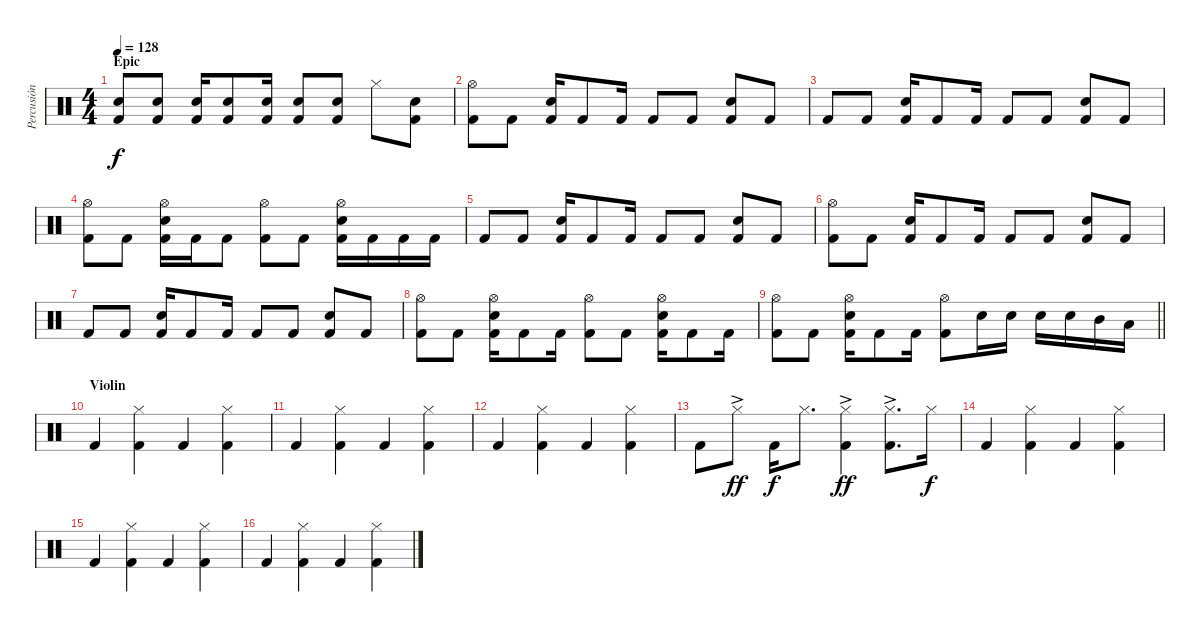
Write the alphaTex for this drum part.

\track ("Percusión" "Percusión") {instrument percussion}
\staff {score}
\articulation defaults
\ts (4 4)
\section ("" "Epic")
\tempo 128
\clef neutral
\ks c
("Snare (hit) 2" "Kick (hit) 2").8{dy f} ("Snare (hit) 2" "Kick (hit) 2").8 ("Snare (hit) 2" "Kick (hit) 2").16 ("Snare (hit) 2" "Kick (hit) 2").8 ("Snare (hit) 2" "Kick (hit) 2").16 ("Snare (hit) 2" "Kick (hit) 2").8 ("Snare (hit) 2" "Kick (hit) 2").8 "Hi-Hat (closed)".8 ("Snare (hit) 2" "Kick (hit) 2").8 |
("Hi-Hat (open)" "Kick (hit) 2").8 "Kick (hit) 2".8 ("Snare (hit) 2" "Kick (hit) 2").16 "Kick (hit) 2".8 "Kick (hit) 2".16 "Kick (hit) 2".8 "Kick (hit) 2".8 ("Snare (hit) 2" "Kick (hit) 2").8 "Kick (hit) 2".8 |
"Kick (hit) 2".8 "Kick (hit) 2".8 ("Snare (hit) 2" "Kick (hit) 2").16 "Kick (hit) 2".8 "Kick (hit) 2".16 "Kick (hit) 2".8 "Kick (hit) 2".8 ("Snare (hit) 2" "Kick (hit) 2").8 "Kick (hit) 2".8 |
("Hi-Hat (open)" "Kick (hit) 2").8 "Kick (hit) 2".8 ("Hi-Hat (open)" "Snare (hit) 2" "Kick (hit) 2").16 "Kick (hit) 2".16 "Kick (hit) 2".8 ("Hi-Hat (open)" "Kick (hit) 2").8 "Kick (hit) 2".8 ("Hi-Hat (open)" "Snare (hit) 2" "Kick (hit) 2").16 "Kick (hit) 2".16 "Kick (hit) 2".16 "Kick (hit) 2".16 |
"Kick (hit) 2".8 "Kick (hit) 2".8 ("Snare (hit) 2" "Kick (hit) 2").16 "Kick (hit) 2".8 "Kick (hit) 2".16 "Kick (hit) 2".8 "Kick (hit) 2".8 ("Snare (hit) 2" "Kick (hit) 2").8 "Kick (hit) 2".8 |
("Hi-Hat (open)" "Kick (hit) 2").8 "Kick (hit) 2".8 ("Snare (hit) 2" "Kick (hit) 2").16 "Kick (hit) 2".8 "Kick (hit) 2".16 "Kick (hit) 2".8 "Kick (hit) 2".8 ("Snare (hit) 2" "Kick (hit) 2").8 "Kick (hit) 2".8 |
"Kick (hit) 2".8 "Kick (hit) 2".8 ("Snare (hit) 2" "Kick (hit) 2").16 "Kick (hit) 2".8 "Kick (hit) 2".16 "Kick (hit) 2".8 "Kick (hit) 2".8 ("Snare (hit) 2" "Kick (hit) 2").8 "Kick (hit) 2".8 |
("Hi-Hat (open)" "Kick (hit) 2").8 "Kick (hit) 2".8 ("Hi-Hat (open)" "Snare (hit) 2" "Kick (hit) 2").16 "Kick (hit) 2".8 "Kick (hit) 2".16 ("Hi-Hat (open)" "Kick (hit) 2").8 "Kick (hit) 2".8 ("Hi-Hat (open)" "Snare (hit) 2" "Kick (hit) 2").16 "Kick (hit) 2".8 "Kick (hit) 2".16 |
\barLineRight lightlight
("Hi-Hat (open)" "Kick (hit) 2").8 "Kick (hit) 2".8 ("Hi-Hat (open)" "Snare (hit) 2" "Kick (hit) 2").16 "Kick (hit) 2".8 "Kick (hit) 2".16 ("Hi-Hat (open)" "Kick (hit) 2").8 "Snare (hit) 2".16 "Snare (hit) 2".16 "Snare (hit) 2".16 "Snare (hit) 2".16 "Mid Tom (hit)".16 "Low Tom (hit)".16 |
\section ("" "Violin")
"Kick (hit) 2".4 ("Hi-Hat (closed)" "Kick (hit) 2").4 "Kick (hit) 2".4 ("Hi-Hat (closed)" "Kick (hit) 2").4 |
"Kick (hit) 2".4 ("Hi-Hat (closed)" "Kick (hit) 2").4 "Kick (hit) 2".4 ("Hi-Hat (closed)" "Kick (hit) 2").4 |
"Kick (hit) 2".4 ("Hi-Hat (closed)" "Kick (hit) 2").4 "Kick (hit) 2".4 ("Hi-Hat (closed)" "Kick (hit) 2").4 |
"Kick (hit) 2".8 "Hi-Hat (closed)"{ac}.8{dy ff} "Kick (hit) 2".16{dy f} "Hi-Hat (closed)".8{d} ("Hi-Hat (closed)"{ac} "Kick (hit) 2").4{dy ff} ("Hi-Hat (closed)"{ac} "Kick (hit) 2").8{d} "Hi-Hat (closed)".16{dy f} |
"Kick (hit) 2".4 ("Hi-Hat (closed)" "Kick (hit) 2").4 "Kick (hit) 2".4 ("Hi-Hat (closed)" "Kick (hit) 2").4 |
"Kick (hit) 2".4 ("Hi-Hat (closed)" "Kick (hit) 2").4 "Kick (hit) 2".4 ("Hi-Hat (closed)" "Kick (hit) 2").4 |
"Kick (hit) 2".4 ("Hi-Hat (closed)" "Kick (hit) 2").4 "Kick (hit) 2".4 ("Hi-Hat (closed)" "Kick (hit) 2").4
